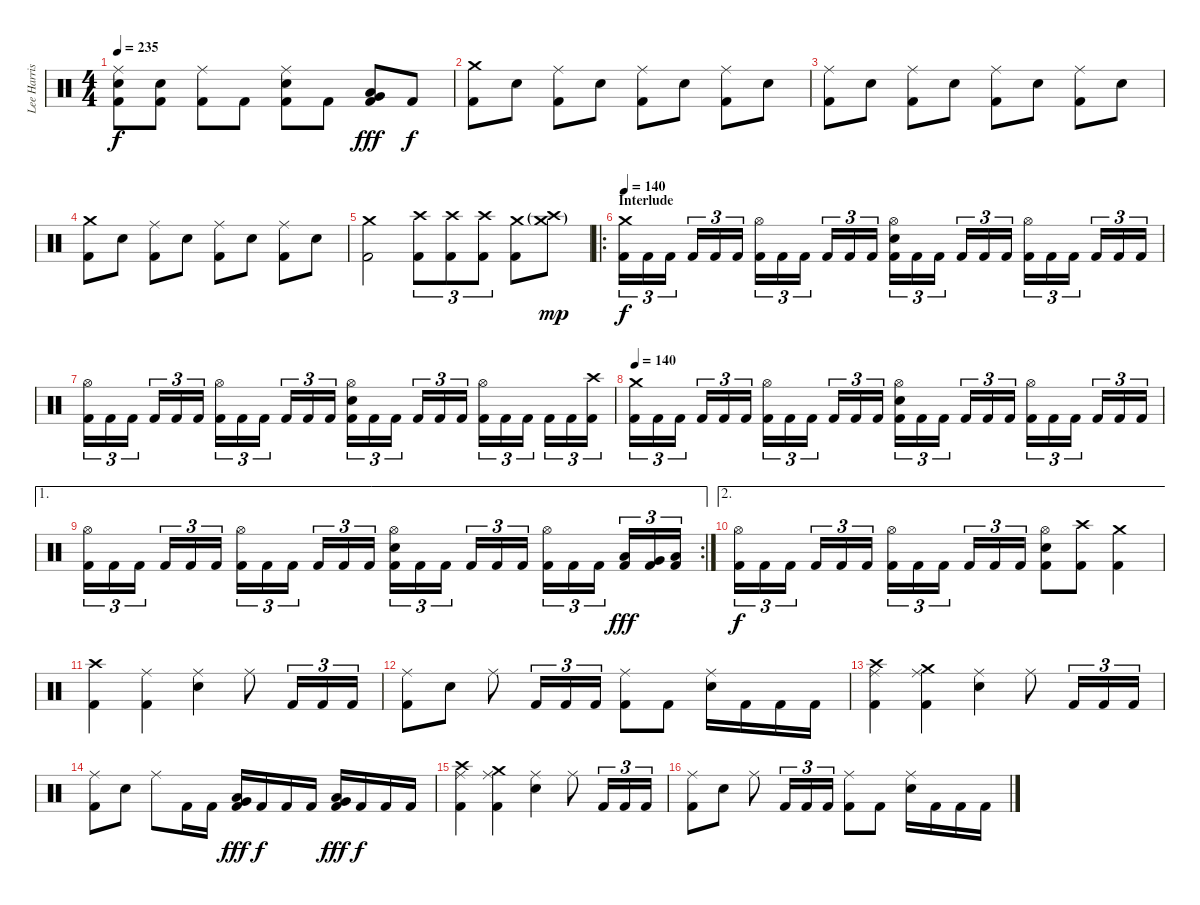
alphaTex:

\track ("Lee Harrison" "Lee Harris") {instrument percussion}
\staff {score}
\articulation defaults
\ts (4 4)
\tempo 235
\clef neutral
\ks c
("Ride (middle)" "Electric Snare (hit)" "Kick (hit) 2").8{dy f} ("Electric Snare (hit)" "Kick (hit) 2").8 ("Ride (middle)" "Kick (hit) 2").8 "Kick (hit) 2".8 ("Ride (middle)" "Electric Snare (hit)" "Kick (hit) 2").8 "Kick (hit) 2".8 ("Very Low Tom (hit)" "Low Floor Tom (hit)" "Kick (hit) 2").8{dy fff} "Kick (hit) 2".8{dy f} |
("Crash medium (hit)" "Kick (hit) 2").8 "Electric Snare (hit)".8 ("Ride (middle)" "Kick (hit) 2").8 "Electric Snare (hit)".8 ("Ride (middle)" "Kick (hit) 2").8 "Electric Snare (hit)".8 ("Ride (middle)" "Kick (hit) 2").8 "Electric Snare (hit)".8 |
("Ride (middle)" "Kick (hit) 2").8 "Electric Snare (hit)".8 ("Ride (middle)" "Kick (hit) 2").8 "Electric Snare (hit)".8 ("Ride (middle)" "Kick (hit) 2").8 "Electric Snare (hit)".8 ("Ride (middle)" "Kick (hit) 2").8 "Electric Snare (hit)".8 |
("Crash medium (hit)" "Kick (hit) 2").8 "Electric Snare (hit)".8 ("Ride (middle)" "Kick (hit) 2").8 "Electric Snare (hit)".8 ("Ride (middle)" "Kick (hit) 2").8 "Electric Snare (hit)".8 ("Ride (middle)" "Kick (hit) 2").8 "Electric Snare (hit)".8 |
("Crash medium (hit)" "Kick (hit) 2").2 ("Crash high (hit)" "Kick (hit) 2").8{tu (3 2)} ("Crash high (hit)" "Kick (hit) 2").8{tu (3 2)} ("Crash high (hit)" "Kick (hit) 2").8{tu (3 2)} ("Crash medium (hit)" "Kick (hit) 2").8 ("Crash medium (hit)"{g} "Crash high (hit)"{g}).8{dy mp} |
\ro
\section ("" "Interlude")
\tempo 140
("Crash medium (hit)" "Kick (hit) 2").16{tu (3 2) dy f} "Kick (hit) 2".16{tu (3 2)} "Kick (hit) 2".16{tu (3 2)} "Kick (hit) 2".16{tu (3 2)} "Kick (hit) 2".16{tu (3 2)} "Kick (hit) 2".16{tu (3 2)} ("Hi-Hat (open)" "Kick (hit) 2").16{tu (3 2)} "Kick (hit) 2".16{tu (3 2)} "Kick (hit) 2".16{tu (3 2)} "Kick (hit) 2".16{tu (3 2)} "Kick (hit) 2".16{tu (3 2)} "Kick (hit) 2".16{tu (3 2)} ("Hi-Hat (open)" "Electric Snare (hit)" "Kick (hit) 2").16{tu (3 2)} "Kick (hit) 2".16{tu (3 2)} "Kick (hit) 2".16{tu (3 2)} "Kick (hit) 2".16{tu (3 2)} "Kick (hit) 2".16{tu (3 2)} "Kick (hit) 2".16{tu (3 2)} ("Hi-Hat (open)" "Kick (hit) 2").16{tu (3 2)} "Kick (hit) 2".16{tu (3 2)} "Kick (hit) 2".16{tu (3 2)} "Kick (hit) 2".16{tu (3 2)} "Kick (hit) 2".16{tu (3 2)} "Kick (hit) 2".16{tu (3 2)} |
("Hi-Hat (open)" "Kick (hit) 2").16{tu (3 2)} "Kick (hit) 2".16{tu (3 2)} "Kick (hit) 2".16{tu (3 2)} "Kick (hit) 2".16{tu (3 2)} "Kick (hit) 2".16{tu (3 2)} "Kick (hit) 2".16{tu (3 2)} ("Hi-Hat (open)" "Kick (hit) 2").16{tu (3 2)} "Kick (hit) 2".16{tu (3 2)} "Kick (hit) 2".16{tu (3 2)} "Kick (hit) 2".16{tu (3 2)} "Kick (hit) 2".16{tu (3 2)} "Kick (hit) 2".16{tu (3 2)} ("Hi-Hat (open)" "Electric Snare (hit)" "Kick (hit) 2").16{tu (3 2)} "Kick (hit) 2".16{tu (3 2)} "Kick (hit) 2".16{tu (3 2)} "Kick (hit) 2".16{tu (3 2)} "Kick (hit) 2".16{tu (3 2)} "Kick (hit) 2".16{tu (3 2)} ("Hi-Hat (open)" "Kick (hit) 2").16{tu (3 2)} "Kick (hit) 2".16{tu (3 2)} "Kick (hit) 2".16{tu (3 2)} "Kick (hit) 2".16{tu (3 2)} "Kick (hit) 2".16{tu (3 2)} ("Crash high (hit)" "Kick (hit) 2").16{tu (3 2)} |
\tempo 140
("Crash medium (hit)" "Kick (hit) 2").16{tu (3 2)} "Kick (hit) 2".16{tu (3 2)} "Kick (hit) 2".16{tu (3 2)} "Kick (hit) 2".16{tu (3 2)} "Kick (hit) 2".16{tu (3 2)} "Kick (hit) 2".16{tu (3 2)} ("Hi-Hat (open)" "Kick (hit) 2").16{tu (3 2)} "Kick (hit) 2".16{tu (3 2)} "Kick (hit) 2".16{tu (3 2)} "Kick (hit) 2".16{tu (3 2)} "Kick (hit) 2".16{tu (3 2)} "Kick (hit) 2".16{tu (3 2)} ("Hi-Hat (open)" "Electric Snare (hit)" "Kick (hit) 2").16{tu (3 2)} "Kick (hit) 2".16{tu (3 2)} "Kick (hit) 2".16{tu (3 2)} "Kick (hit) 2".16{tu (3 2)} "Kick (hit) 2".16{tu (3 2)} "Kick (hit) 2".16{tu (3 2)} ("Hi-Hat (open)" "Kick (hit) 2").16{tu (3 2)} "Kick (hit) 2".16{tu (3 2)} "Kick (hit) 2".16{tu (3 2)} "Kick (hit) 2".16{tu (3 2)} "Kick (hit) 2".16{tu (3 2)} "Kick (hit) 2".16{tu (3 2)} |
\ae 1
\rc 2
("Hi-Hat (open)" "Kick (hit) 2").16{tu (3 2)} "Kick (hit) 2".16{tu (3 2)} "Kick (hit) 2".16{tu (3 2)} "Kick (hit) 2".16{tu (3 2)} "Kick (hit) 2".16{tu (3 2)} "Kick (hit) 2".16{tu (3 2)} ("Hi-Hat (open)" "Kick (hit) 2").16{tu (3 2)} "Kick (hit) 2".16{tu (3 2)} "Kick (hit) 2".16{tu (3 2)} "Kick (hit) 2".16{tu (3 2)} "Kick (hit) 2".16{tu (3 2)} "Kick (hit) 2".16{tu (3 2)} ("Hi-Hat (open)" "Electric Snare (hit)" "Kick (hit) 2").16{tu (3 2)} "Kick (hit) 2".16{tu (3 2)} "Kick (hit) 2".16{tu (3 2)} "Kick (hit) 2".16{tu (3 2)} "Kick (hit) 2".16{tu (3 2)} "Kick (hit) 2".16{tu (3 2)} ("Hi-Hat (open)" "Kick (hit) 2").16{tu (3 2)} "Kick (hit) 2".16{tu (3 2)} "Kick (hit) 2".16{tu (3 2)} ("Low Tom (hit)" "Kick (hit) 2").16{tu (3 2) dy fff} ("Very Low Tom (hit)" "Kick (hit) 2").16{tu (3 2)} ("Low Floor Tom (hit)" "Kick (hit) 2").16{tu (3 2)} |
\ae 2
("Hi-Hat (open)" "Kick (hit) 2").16{tu (3 2) dy f} "Kick (hit) 2".16{tu (3 2)} "Kick (hit) 2".16{tu (3 2)} "Kick (hit) 2".16{tu (3 2)} "Kick (hit) 2".16{tu (3 2)} "Kick (hit) 2".16{tu (3 2)} ("Hi-Hat (open)" "Kick (hit) 2").16{tu (3 2)} "Kick (hit) 2".16{tu (3 2)} "Kick (hit) 2".16{tu (3 2)} "Kick (hit) 2".16{tu (3 2)} "Kick (hit) 2".16{tu (3 2)} "Kick (hit) 2".16{tu (3 2)} ("Hi-Hat (open)" "Electric Snare (hit)" "Kick (hit) 2").8 ("Crash high (hit)" "Kick (hit) 2").8 ("Crash medium (hit)" "Kick (hit) 2").4 |
("Crash high (hit)" "Kick (hit) 2").4 ("Ride (middle)" "Kick (hit) 2").4 ("Ride (middle)" "Electric Snare (hit)").4 "Ride (middle)".8 "Kick (hit) 2".16{tu (3 2)} "Kick (hit) 2".16{tu (3 2)} "Kick (hit) 2".16{tu (3 2)} |
("Ride (middle)" "Kick (hit) 2").8 "Electric Snare (hit)".8 "Ride (middle)".8 "Kick (hit) 2".16{tu (3 2)} "Kick (hit) 2".16{tu (3 2)} "Kick (hit) 2".16{tu (3 2)} ("Ride (middle)" "Kick (hit) 2").8 "Kick (hit) 2".8 ("Ride (middle)" "Electric Snare (hit)").16 "Kick (hit) 2".16 "Kick (hit) 2".16 "Kick (hit) 2".16 |
("Crash high (hit)" "Ride (middle)" "Kick (hit) 2").4 ("Crash medium (hit)" "Ride (middle)" "Kick (hit) 2").4 ("Ride (middle)" "Electric Snare (hit)").4 "Ride (middle)".8 "Kick (hit) 2".16{tu (3 2)} "Kick (hit) 2".16{tu (3 2)} "Kick (hit) 2".16{tu (3 2)} |
("Ride (middle)" "Kick (hit) 2").8 "Electric Snare (hit)".8 "Ride (middle)".8 "Kick (hit) 2".16 "Kick (hit) 2".16 ("Low Tom (hit)" "Very Low Tom (hit)" "Kick (hit) 2").16{dy fff} "Kick (hit) 2".16{dy f} "Kick (hit) 2".16 "Kick (hit) 2".16 ("Very Low Tom (hit)" "Low Floor Tom (hit)" "Kick (hit) 2").16{dy fff} "Kick (hit) 2".16{dy f} "Kick (hit) 2".16 "Kick (hit) 2".16 |
("Crash high (hit)" "Ride (middle)" "Kick (hit) 2").4 ("Crash medium (hit)" "Ride (middle)" "Kick (hit) 2").4 ("Ride (middle)" "Electric Snare (hit)").4 "Ride (middle)".8 "Kick (hit) 2".16{tu (3 2)} "Kick (hit) 2".16{tu (3 2)} "Kick (hit) 2".16{tu (3 2)} |
("Ride (middle)" "Kick (hit) 2").8 "Electric Snare (hit)".8 "Ride (middle)".8 "Kick (hit) 2".16{tu (3 2)} "Kick (hit) 2".16{tu (3 2)} "Kick (hit) 2".16{tu (3 2)} ("Ride (middle)" "Kick (hit) 2").8 "Kick (hit) 2".8 ("Ride (middle)" "Electric Snare (hit)").16 "Kick (hit) 2".16 "Kick (hit) 2".16 "Kick (hit) 2".16
